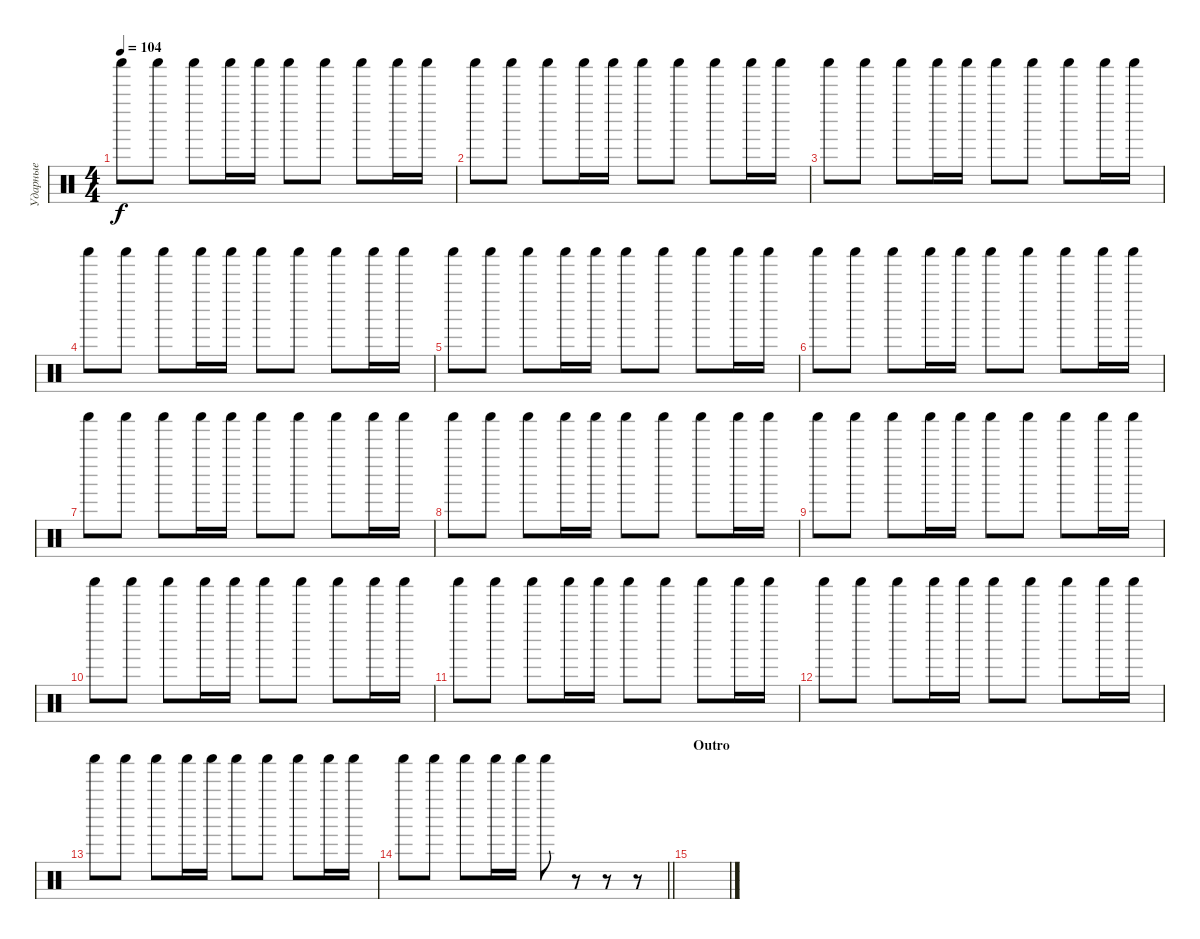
\track ("Ударные" "Ударные") {instrument percussion}
\staff {score}
\articulation defaults
\ts (4 4)
\tempo 104
\clef neutral
\ks c "Shaker (hit)".8{dy f} "Shaker (hit)".8 "Shaker (hit)".8 "Shaker (hit)".16 "Shaker (hit)".16 "Shaker (hit)".8 "Shaker (hit)".8 "Shaker (hit)".8 "Shaker (hit)".16 "Shaker (hit)".16
|
"Shaker (hit)".8 "Shaker (hit)".8 "Shaker (hit)".8 "Shaker (hit)".16 "Shaker (hit)".16 "Shaker (hit)".8 "Shaker (hit)".8 "Shaker (hit)".8 "Shaker (hit)".16 "Shaker (hit)".16 |
"Shaker (hit)".8 "Shaker (hit)".8 "Shaker (hit)".8 "Shaker (hit)".16 "Shaker (hit)".16 "Shaker (hit)".8 "Shaker (hit)".8 "Shaker (hit)".8 "Shaker (hit)".16 "Shaker (hit)".16 |
"Shaker (hit)".8{volume 5} "Shaker (hit)".8 "Shaker (hit)".8 "Shaker (hit)".16 "Shaker (hit)".16 "Shaker (hit)".8 "Shaker (hit)".8 "Shaker (hit)".8 "Shaker (hit)".16 "Shaker (hit)".16 |
"Shaker (hit)".8 "Shaker (hit)".8 "Shaker (hit)".8 "Shaker (hit)".16 "Shaker (hit)".16 "Shaker (hit)".8 "Shaker (hit)".8 "Shaker (hit)".8 "Shaker (hit)".16 "Shaker (hit)".16 |
"Shaker (hit)".8 "Shaker (hit)".8 "Shaker (hit)".8 "Shaker (hit)".16 "Shaker (hit)".16 "Shaker (hit)".8 "Shaker (hit)".8 "Shaker (hit)".8 "Shaker (hit)".16 "Shaker (hit)".16 |
"Shaker (hit)".8{volume 16} "Shaker (hit)".8 "Shaker (hit)".8 "Shaker (hit)".16 "Shaker (hit)".16 "Shaker (hit)".8 "Shaker (hit)".8 "Shaker (hit)".8 "Shaker (hit)".16 "Shaker (hit)".16 |
"Shaker (hit)".8 "Shaker (hit)".8 "Shaker (hit)".8 "Shaker (hit)".16 "Shaker (hit)".16 "Shaker (hit)".8 "Shaker (hit)".8 "Shaker (hit)".8 "Shaker (hit)".16 "Shaker (hit)".16 |
"Shaker (hit)".8 "Shaker (hit)".8 "Shaker (hit)".8 "Shaker (hit)".16 "Shaker (hit)".16 "Shaker (hit)".8 "Shaker (hit)".8 "Shaker (hit)".8 "Shaker (hit)".16 "Shaker (hit)".16 |
"Shaker (hit)".8 "Shaker (hit)".8 "Shaker (hit)".8 "Shaker (hit)".16 "Shaker (hit)".16 "Shaker (hit)".8 "Shaker (hit)".8 "Shaker (hit)".8 "Shaker (hit)".16 "Shaker (hit)".16 |
"Shaker (hit)".8 "Shaker (hit)".8 "Shaker (hit)".8 "Shaker (hit)".16 "Shaker (hit)".16 "Shaker (hit)".8 "Shaker (hit)".8 "Shaker (hit)".8 "Shaker (hit)".16 "Shaker (hit)".16 |
"Shaker (hit)".8 "Shaker (hit)".8 "Shaker (hit)".8 "Shaker (hit)".16 "Shaker (hit)".16 "Shaker (hit)".8 "Shaker (hit)".8 "Shaker (hit)".8 "Shaker (hit)".16 "Shaker (hit)".16 |
"Shaker (hit)".8 "Shaker (hit)".8 "Shaker (hit)".8 "Shaker (hit)".16 "Shaker (hit)".16 "Shaker (hit)".8 "Shaker (hit)".8 "Shaker (hit)".8 "Shaker (hit)".16 "Shaker (hit)".16 |
\barLineRight lightlight "Shaker (hit)".8 "Shaker (hit)".8 "Shaker (hit)".8 "Shaker (hit)".16 "Shaker (hit)".16 "Shaker (hit)".8
r.8 r.8 r.8 |
\section ("" "Outro")
